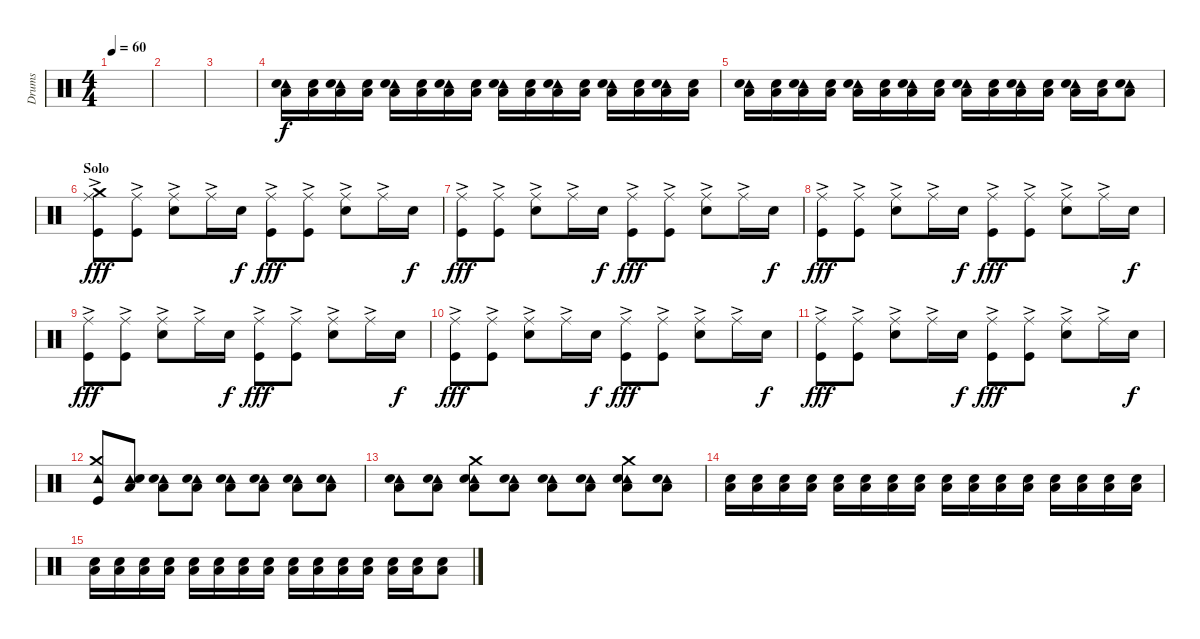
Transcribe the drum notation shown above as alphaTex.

\track ("Drums" "Drums") {instrument percussion}
\staff {score}
\articulation defaults
\ts (4 4)
\tempo 60
\clef neutral
\ks c
|
|
|
("Tambourine (hit)" "Snare (hit) 2" "Low Tom (hit)").16{volume 13} ("Snare (hit) 2" "Low Tom (hit)").16 ("Tambourine (hit)" "Snare (hit) 2" "Low Tom (hit)").16 ("Snare (hit) 2" "Low Tom (hit)").16 ("Tambourine (hit)" "Snare (hit) 2" "Low Tom (hit)").16 ("Snare (hit) 2" "Low Tom (hit)").16 ("Tambourine (hit)" "Snare (hit) 2" "Low Tom (hit)").16 ("Snare (hit) 2" "Low Tom (hit)").16 ("Tambourine (hit)" "Snare (hit) 2" "Low Tom (hit)").16 ("Snare (hit) 2" "Low Tom (hit)").16 ("Tambourine (hit)" "Snare (hit) 2" "Low Tom (hit)").16 ("Snare (hit) 2" "Low Tom (hit)").16 ("Tambourine (hit)" "Snare (hit) 2" "Low Tom (hit)").16 ("Snare (hit) 2" "Low Tom (hit)").16 ("Tambourine (hit)" "Snare (hit) 2" "Low Tom (hit)").16 ("Snare (hit) 2" "Low Tom (hit)").16 |
("Tambourine (hit)" "Snare (hit) 2" "Low Tom (hit)").16 ("Snare (hit) 2" "Low Tom (hit)").16 ("Tambourine (hit)" "Snare (hit) 2" "Low Tom (hit)").16 ("Snare (hit) 2" "Low Tom (hit)").16 ("Tambourine (hit)" "Snare (hit) 2" "Low Tom (hit)").16 ("Snare (hit) 2" "Low Tom (hit)").16 ("Tambourine (hit)" "Snare (hit) 2" "Low Tom (hit)").16 ("Snare (hit) 2" "Low Tom (hit)").16 ("Tambourine (hit)" "Snare (hit) 2" "Low Tom (hit)").16 ("Snare (hit) 2" "Low Tom (hit)").16 ("Tambourine (hit)" "Snare (hit) 2" "Low Tom (hit)").16 ("Snare (hit) 2" "Low Tom (hit)").16 ("Tambourine (hit)" "Snare (hit) 2" "Low Tom (hit)").16 ("Snare (hit) 2" "Low Tom (hit)").16 ("Tambourine (hit)" "Snare (hit) 2" "Low Tom (hit)").8 |
\section ("" "Solo")
("Ride (middle)"{ac} "Crash medium (hit)" "Kick (hit)").8{dy fff} ("Ride (middle)"{ac} "Kick (hit)").8 ("Ride (middle)"{ac} "Snare (hit) 2").8 "Ride (middle)"{ac}.16 "Snare (hit) 2".16{dy f} ("Ride (middle)"{ac} "Kick (hit)").8{dy fff} ("Ride (middle)"{ac} "Kick (hit)").8 ("Ride (middle)"{ac} "Snare (hit) 2").8 "Ride (middle)"{ac}.16 "Snare (hit) 2".16{dy f} |
("Ride (middle)"{ac} "Kick (hit)").8{dy fff} ("Ride (middle)"{ac} "Kick (hit)").8 ("Ride (middle)"{ac} "Snare (hit) 2").8 "Ride (middle)"{ac}.16 "Snare (hit) 2".16{dy f} ("Ride (middle)"{ac} "Kick (hit)").8{dy fff} ("Ride (middle)"{ac} "Kick (hit)").8 ("Ride (middle)"{ac} "Snare (hit) 2").8 "Ride (middle)"{ac}.16 "Snare (hit) 2".16{dy f} |
("Ride (middle)"{ac} "Kick (hit)").8{dy fff} ("Ride (middle)"{ac} "Kick (hit)").8 ("Ride (middle)"{ac} "Snare (hit) 2").8 "Ride (middle)"{ac}.16 "Snare (hit) 2".16{dy f} ("Ride (middle)"{ac} "Kick (hit)").8{dy fff} ("Ride (middle)"{ac} "Kick (hit)").8 ("Ride (middle)"{ac} "Snare (hit) 2").8 "Ride (middle)"{ac}.16 "Snare (hit) 2".16{dy f} |
("Ride (middle)"{ac} "Kick (hit)").8{dy fff} ("Ride (middle)"{ac} "Kick (hit)").8 ("Ride (middle)"{ac} "Snare (hit) 2").8 "Ride (middle)"{ac}.16 "Snare (hit) 2".16{dy f} ("Ride (middle)"{ac} "Kick (hit)").8{dy fff} ("Ride (middle)"{ac} "Kick (hit)").8 ("Ride (middle)"{ac} "Snare (hit) 2").8 "Ride (middle)"{ac}.16 "Snare (hit) 2".16{dy f} |
("Ride (middle)"{ac} "Kick (hit)").8{dy fff} ("Ride (middle)"{ac} "Kick (hit)").8 ("Ride (middle)"{ac} "Snare (hit) 2").8 "Ride (middle)"{ac}.16 "Snare (hit) 2".16{dy f} ("Ride (middle)"{ac} "Kick (hit)").8{dy fff} ("Ride (middle)"{ac} "Kick (hit)").8 ("Ride (middle)"{ac} "Snare (hit) 2").8 "Ride (middle)"{ac}.16 "Snare (hit) 2".16{dy f} |
("Ride (middle)"{ac} "Kick (hit)").8{dy fff} ("Ride (middle)"{ac} "Kick (hit)").8 ("Ride (middle)"{ac} "Snare (hit) 2").8 "Ride (middle)"{ac}.16 "Snare (hit) 2".16{dy f} ("Ride (middle)"{ac} "Kick (hit)").8{dy fff} ("Ride (middle)"{ac} "Kick (hit)").8 ("Ride (middle)"{ac} "Snare (hit) 2").8 "Ride (middle)"{ac}.16 "Snare (hit) 2".16{dy f} |
("Tambourine (hit)" "Crash medium (hit)" "Kick (hit)").8{volume 0} ("Tambourine (hit)" "Snare (hit) 2" "Low Tom (hit)").8 ("Tambourine (hit)" "Snare (hit) 2" "Low Tom (hit)").8 ("Tambourine (hit)" "Snare (hit) 2" "Low Tom (hit)").8 ("Tambourine (hit)" "Snare (hit) 2" "Low Tom (hit)").8 ("Tambourine (hit)" "Snare (hit) 2" "Low Tom (hit)").8 ("Tambourine (hit)" "Snare (hit) 2" "Low Tom (hit)").8 ("Tambourine (hit)" "Snare (hit) 2" "Low Tom (hit)").8 |
("Tambourine (hit)" "Snare (hit) 2" "Low Tom (hit)").8 ("Tambourine (hit)" "Snare (hit) 2" "Low Tom (hit)").8 ("Tambourine (hit)" "Crash medium (hit)" "Snare (hit) 2" "Low Tom (hit)").8 ("Tambourine (hit)" "Snare (hit) 2" "Low Tom (hit)").8 ("Tambourine (hit)" "Snare (hit) 2" "Low Tom (hit)").8 ("Tambourine (hit)" "Snare (hit) 2" "Low Tom (hit)").8 ("Tambourine (hit)" "Crash medium (hit)" "Snare (hit) 2" "Low Tom (hit)").8 ("Tambourine (hit)" "Snare (hit) 2" "Low Tom (hit)").8 |
("Snare (hit) 2" "Low Tom (hit)").16 ("Snare (hit) 2" "Low Tom (hit)").16 ("Snare (hit) 2" "Low Tom (hit)").16 ("Snare (hit) 2" "Low Tom (hit)").16 ("Snare (hit) 2" "Low Tom (hit)").16 ("Snare (hit) 2" "Low Tom (hit)").16 ("Snare (hit) 2" "Low Tom (hit)").16 ("Snare (hit) 2" "Low Tom (hit)").16 ("Snare (hit) 2" "Low Tom (hit)").16 ("Snare (hit) 2" "Low Tom (hit)").16 ("Snare (hit) 2" "Low Tom (hit)").16 ("Snare (hit) 2" "Low Tom (hit)").16 ("Snare (hit) 2" "Low Tom (hit)").16 ("Snare (hit) 2" "Low Tom (hit)").16 ("Snare (hit) 2" "Low Tom (hit)").16 ("Snare (hit) 2" "Low Tom (hit)").16 |
("Snare (hit) 2" "Low Tom (hit)").16 ("Snare (hit) 2" "Low Tom (hit)").16 ("Snare (hit) 2" "Low Tom (hit)").16 ("Snare (hit) 2" "Low Tom (hit)").16 ("Snare (hit) 2" "Low Tom (hit)").16 ("Snare (hit) 2" "Low Tom (hit)").16 ("Snare (hit) 2" "Low Tom (hit)").16 ("Snare (hit) 2" "Low Tom (hit)").16 ("Snare (hit) 2" "Low Tom (hit)").16 ("Snare (hit) 2" "Low Tom (hit)").16 ("Snare (hit) 2" "Low Tom (hit)").16 ("Snare (hit) 2" "Low Tom (hit)").16 ("Snare (hit) 2" "Low Tom (hit)").16 ("Snare (hit) 2" "Low Tom (hit)").16 ("Snare (hit) 2" "Low Tom (hit)").8
